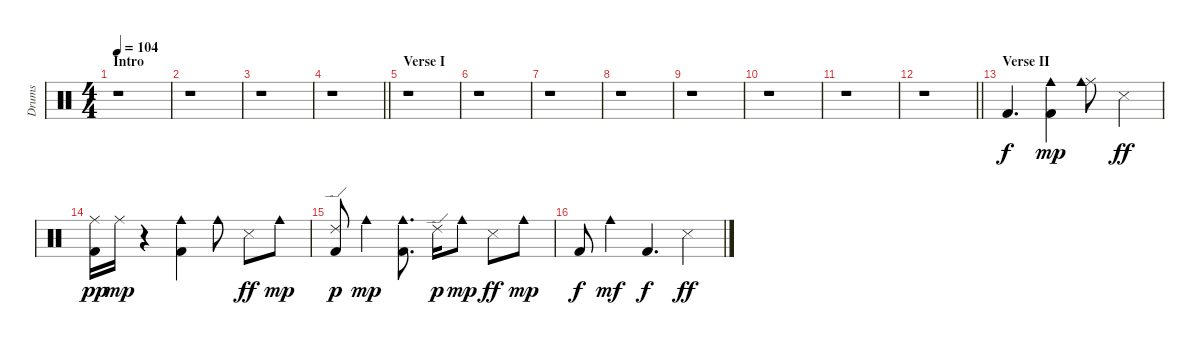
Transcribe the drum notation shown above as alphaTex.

\track ("Drums" "Drums") {instrument percussion}
\staff {score}
\articulation defaults
\ts (4 4)
\section ("" "Intro")
\tempo 104
\clef neutral
\ks c
r.1{dy f} |
r.1 |
r.1 |
\barLineRight lightlight
r.1 |
\section ("" "Verse I")
r.1 |
r.1 |
r.1 |
r.1 |
r.1 |
r.1 |
r.1 |
\barLineRight lightlight
r.1 |
\section ("" "Verse II")
"Kick (hit) 2".4{d} ("Kick (hit) 2" "Cowbell medium (hit)").4{dy mp} ("Ride (middle)" "Cowbell medium (hit)").8 "Snare (side stick) 3".4{dy ff} |
("Ride (middle)" "Kick (hit) 2").16{dy pp} "Ride (middle)".16{dy mp} r.4 ("Kick (hit) 2" "Cowbell medium (hit)").4 "Cowbell medium (hit)".8 "Snare (side stick) 3".8{dy ff} "Cowbell medium (hit)".8{dy mp} |
("Ride (edge) 2" "Kick (hit) 2").8{dy p} "Cowbell medium (hit)".4{dy mp} ("Kick (hit) 2" "Cowbell medium (hit)").8{d} "Ride (edge) 2".16{dy p} "Cowbell medium (hit)".8{dy mp} "Snare (side stick) 3".8{dy ff} "Cowbell medium (hit)".8{dy mp} |
"Kick (hit) 2".8{dy f} "Cowbell medium (hit)".4{dy mf} "Kick (hit) 2".4{d dy f} "Snare (side stick) 3".4{dy ff}
